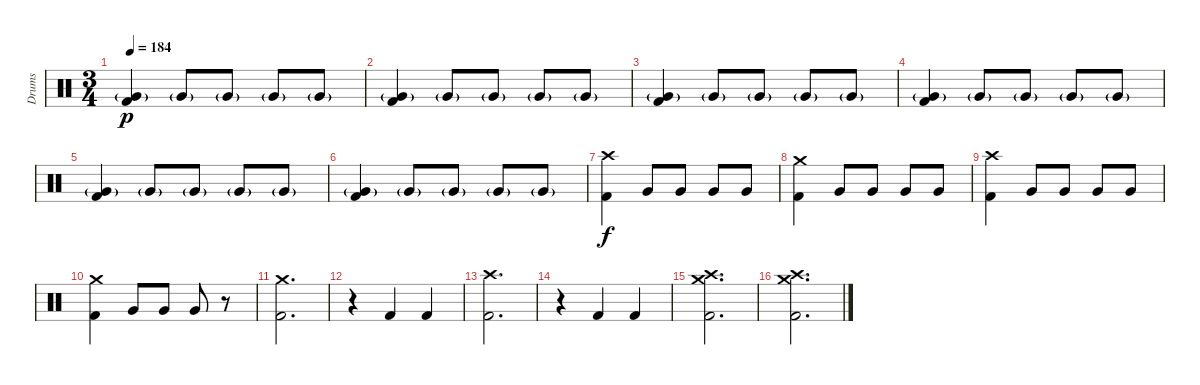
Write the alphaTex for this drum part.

\track ("Drums" "Drums") {instrument percussion}
\staff {score}
\articulation defaults
\ts (3 4)
\tempo 184
\clef neutral
\ks c
("Very Low Tom (hit)"{g} "Kick (hit) 2").4{dy p} "Very Low Tom (hit)"{g}.8 "Very Low Tom (hit)"{g}.8 "Very Low Tom (hit)"{g}.8 "Very Low Tom (hit)"{g}.8 |
("Very Low Tom (hit)"{g} "Kick (hit) 2").4 "Very Low Tom (hit)"{g}.8 "Very Low Tom (hit)"{g}.8 "Very Low Tom (hit)"{g}.8 "Very Low Tom (hit)"{g}.8 |
("Very Low Tom (hit)"{g} "Kick (hit) 2").4 "Very Low Tom (hit)"{g}.8 "Very Low Tom (hit)"{g}.8 "Very Low Tom (hit)"{g}.8 "Very Low Tom (hit)"{g}.8 |
("Very Low Tom (hit)"{g} "Kick (hit) 2").4 "Very Low Tom (hit)"{g}.8 "Very Low Tom (hit)"{g}.8 "Very Low Tom (hit)"{g}.8 "Very Low Tom (hit)"{g}.8 |
("Very Low Tom (hit)"{g} "Kick (hit) 2").4 "Very Low Tom (hit)"{g}.8 "Very Low Tom (hit)"{g}.8 "Very Low Tom (hit)"{g}.8 "Very Low Tom (hit)"{g}.8 |
("Very Low Tom (hit)"{g} "Kick (hit) 2").4 "Very Low Tom (hit)"{g}.8 "Very Low Tom (hit)"{g}.8 "Very Low Tom (hit)"{g}.8 "Very Low Tom (hit)"{g}.8 |
("Crash high (hit)" "Kick (hit) 2").4{dy f} "Very Low Tom (hit)".8 "Very Low Tom (hit)".8 "Very Low Tom (hit)".8 "Very Low Tom (hit)".8 |
("Crash medium (hit)" "Kick (hit) 2").4 "Very Low Tom (hit)".8 "Very Low Tom (hit)".8 "Very Low Tom (hit)".8 "Very Low Tom (hit)".8 |
("Crash high (hit)" "Kick (hit) 2").4 "Very Low Tom (hit)".8 "Very Low Tom (hit)".8 "Very Low Tom (hit)".8 "Very Low Tom (hit)".8 |
("Crash medium (hit)" "Kick (hit) 2").4 "Very Low Tom (hit)".8 "Very Low Tom (hit)".8 "Very Low Tom (hit)".8 r.8 |
("Crash medium (hit)" "Kick (hit) 2").2{d} |
r.4 "Kick (hit) 2".4 "Kick (hit) 2".4 |
("Crash high (hit)" "Kick (hit) 2").2{d} |
r.4 "Kick (hit) 2".4 "Kick (hit) 2".4 |
("Crash medium (hit)" "Crash high (hit)" "Kick (hit) 2").2{d} |
("Crash medium (hit)" "Crash high (hit)" "Kick (hit) 2").2{d}
